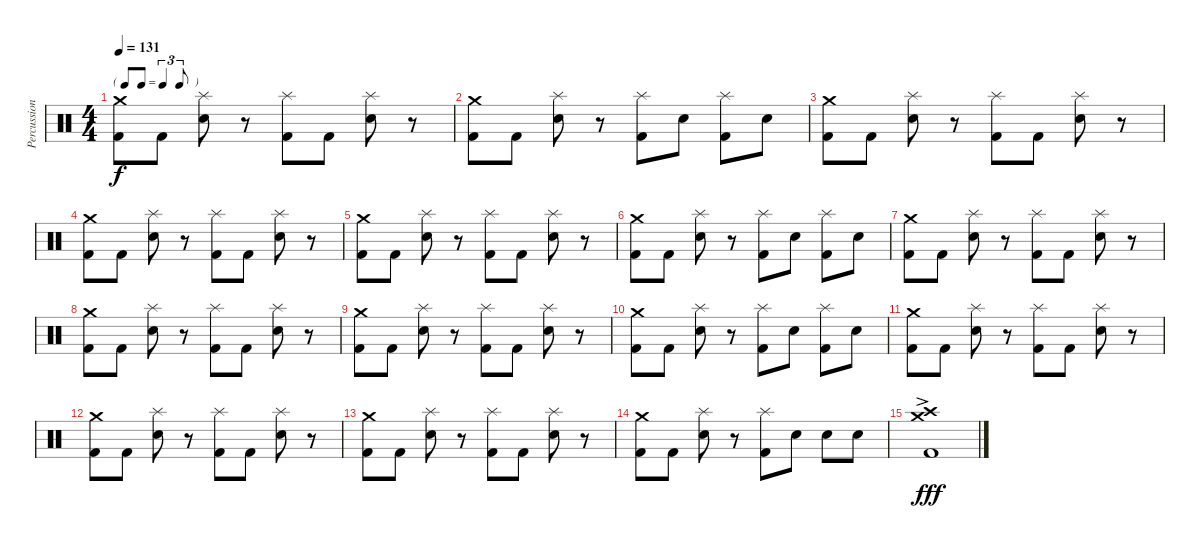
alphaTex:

\track ("Percussioni" "Percussion") {instrument percussion}
\staff {score}
\articulation defaults
\ts (4 4)
\tf triplet8th
\tempo 131
\clef neutral
\ks c
("Crash medium (hit)" "Kick (hit) 2").8{dy f} "Kick (hit) 2".8 ("Splash (hit)" "Electric Snare (hit)").8 r.8 ("Splash (hit)" "Kick (hit) 2").8 "Kick (hit) 2".8 ("Splash (hit)" "Electric Snare (hit)").8 r.8 |
("Crash medium (hit)" "Kick (hit) 2").8 "Kick (hit) 2".8 ("Splash (hit)" "Electric Snare (hit)").8 r.8 ("Splash (hit)" "Kick (hit) 2").8 "Electric Snare (hit)".8 ("Splash (hit)" "Kick (hit) 2").8 "Electric Snare (hit)".8 |
("Crash medium (hit)" "Kick (hit) 2").8 "Kick (hit) 2".8 ("Splash (hit)" "Electric Snare (hit)").8 r.8 ("Splash (hit)" "Kick (hit) 2").8 "Kick (hit) 2".8 ("Splash (hit)" "Electric Snare (hit)").8 r.8 |
("Crash medium (hit)" "Kick (hit) 2").8 "Kick (hit) 2".8 ("Splash (hit)" "Electric Snare (hit)").8 r.8 ("Splash (hit)" "Kick (hit) 2").8 "Kick (hit) 2".8 ("Splash (hit)" "Electric Snare (hit)").8 r.8 |
("Crash medium (hit)" "Kick (hit) 2").8 "Kick (hit) 2".8 ("Splash (hit)" "Electric Snare (hit)").8 r.8 ("Splash (hit)" "Kick (hit) 2").8 "Kick (hit) 2".8 ("Splash (hit)" "Electric Snare (hit)").8 r.8 |
("Crash medium (hit)" "Kick (hit) 2").8 "Kick (hit) 2".8 ("Splash (hit)" "Electric Snare (hit)").8 r.8 ("Splash (hit)" "Kick (hit) 2").8 "Electric Snare (hit)".8 ("Splash (hit)" "Kick (hit) 2").8 "Electric Snare (hit)".8 |
("Crash medium (hit)" "Kick (hit) 2").8 "Kick (hit) 2".8 ("Splash (hit)" "Electric Snare (hit)").8 r.8 ("Splash (hit)" "Kick (hit) 2").8 "Kick (hit) 2".8 ("Splash (hit)" "Electric Snare (hit)").8 r.8 |
("Crash medium (hit)" "Kick (hit) 2").8 "Kick (hit) 2".8 ("Splash (hit)" "Electric Snare (hit)").8 r.8 ("Splash (hit)" "Kick (hit) 2").8 "Kick (hit) 2".8 ("Splash (hit)" "Electric Snare (hit)").8 r.8 |
("Crash medium (hit)" "Kick (hit) 2").8 "Kick (hit) 2".8 ("Splash (hit)" "Electric Snare (hit)").8 r.8 ("Splash (hit)" "Kick (hit) 2").8 "Kick (hit) 2".8 ("Splash (hit)" "Electric Snare (hit)").8 r.8 |
("Crash medium (hit)" "Kick (hit) 2").8 "Kick (hit) 2".8 ("Splash (hit)" "Electric Snare (hit)").8 r.8 ("Splash (hit)" "Kick (hit) 2").8 "Electric Snare (hit)".8 ("Splash (hit)" "Kick (hit) 2").8 "Electric Snare (hit)".8 |
("Crash medium (hit)" "Kick (hit) 2").8 "Kick (hit) 2".8 ("Splash (hit)" "Electric Snare (hit)").8 r.8 ("Splash (hit)" "Kick (hit) 2").8 "Kick (hit) 2".8 ("Splash (hit)" "Electric Snare (hit)").8 r.8 |
("Crash medium (hit)" "Kick (hit) 2").8 "Kick (hit) 2".8 ("Splash (hit)" "Electric Snare (hit)").8 r.8 ("Splash (hit)" "Kick (hit) 2").8 "Kick (hit) 2".8 ("Splash (hit)" "Electric Snare (hit)").8 r.8 |
("Crash medium (hit)" "Kick (hit) 2").8 "Kick (hit) 2".8 ("Splash (hit)" "Electric Snare (hit)").8 r.8 ("Splash (hit)" "Kick (hit) 2").8 "Kick (hit) 2".8 ("Splash (hit)" "Electric Snare (hit)").8 r.8 |
("Crash medium (hit)" "Kick (hit) 2").8 "Kick (hit) 2".8 ("Splash (hit)" "Electric Snare (hit)").8 r.8 ("Splash (hit)" "Kick (hit) 2").8 "Electric Snare (hit)".8 "Electric Snare (hit)".8 "Electric Snare (hit)".8 |
("Crash high (hit)"{ac} "Crash medium (hit)" "Kick (hit) 2").1{dy fff}
